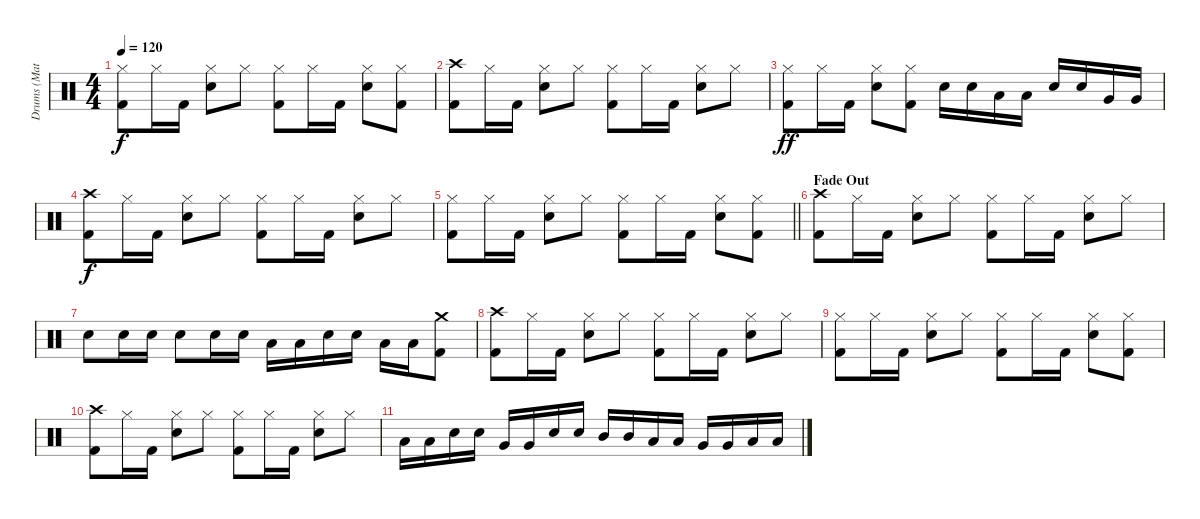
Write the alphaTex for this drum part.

\track ("Drums (Matt)" "Drums (Mat") {instrument percussion}
\staff {score}
\articulation defaults
\ts (4 4)
\tempo 120
\clef neutral
\ks c
("Hi-Hat (closed)" "Kick (hit) 2").8{dy f} "Hi-Hat (closed)".16 "Kick (hit) 2".16 ("Hi-Hat (closed)" "Snare (hit) 2").8 "Hi-Hat (closed)".8 ("Hi-Hat (closed)" "Kick (hit) 2").8 "Hi-Hat (closed)".16 "Kick (hit) 2".16 ("Hi-Hat (closed)" "Snare (hit) 2").8 ("Hi-Hat (closed)" "Kick (hit) 2").8 |
("Crash high (hit)" "Kick (hit) 2").8 "Hi-Hat (closed)".16 "Kick (hit) 2".16 ("Hi-Hat (closed)" "Snare (hit) 2").8 "Hi-Hat (closed)".8 ("Hi-Hat (closed)" "Kick (hit) 2").8 "Hi-Hat (closed)".16 "Kick (hit) 2".16 ("Hi-Hat (closed)" "Snare (hit) 2").8 "Hi-Hat (closed)".8 |
("Hi-Hat (closed)" "Kick (hit) 2").8{dy ff} "Hi-Hat (closed)".16 "Kick (hit) 2".16 ("Hi-Hat (closed)" "Snare (hit) 2").8 ("Hi-Hat (closed)" "Kick (hit) 2").8 "Snare (hit) 2".16 "Snare (hit) 2".16 "Low Tom (hit)".16 "Low Tom (hit)".16 "Snare (hit) 2".16 "Snare (hit) 2".16 "Very Low Tom (hit)".16 "Very Low Tom (hit)".16 |
("Crash high (hit)" "Kick (hit) 2").8{dy f} "Hi-Hat (closed)".16 "Kick (hit) 2".16 ("Hi-Hat (closed)" "Snare (hit) 2").8 "Hi-Hat (closed)".8 ("Hi-Hat (closed)" "Kick (hit) 2").8 "Hi-Hat (closed)".16 "Kick (hit) 2".16 ("Hi-Hat (closed)" "Snare (hit) 2").8 "Hi-Hat (closed)".8 |
\barLineRight lightlight
("Hi-Hat (closed)" "Kick (hit) 2").8 "Hi-Hat (closed)".16 "Kick (hit) 2".16 ("Hi-Hat (closed)" "Snare (hit) 2").8 "Hi-Hat (closed)".8 ("Hi-Hat (closed)" "Kick (hit) 2").8 "Hi-Hat (closed)".16 "Kick (hit) 2".16 ("Hi-Hat (closed)" "Snare (hit) 2").8 ("Hi-Hat (closed)" "Kick (hit) 2").8 |
\section ("" "Fade Out")
("Crash high (hit)" "Kick (hit) 2").8{volume 8} "Hi-Hat (closed)".16 "Kick (hit) 2".16 ("Hi-Hat (closed)" "Snare (hit) 2").8 "Hi-Hat (closed)".8 ("Hi-Hat (closed)" "Kick (hit) 2").8 "Hi-Hat (closed)".16 "Kick (hit) 2".16 ("Hi-Hat (closed)" "Snare (hit) 2").8 "Hi-Hat (closed)".8 |
"Snare (hit) 2".8 "Snare (hit) 2".16 "Snare (hit) 2".16 "Snare (hit) 2".8 "Snare (hit) 2".16 "Snare (hit) 2".16 "Low Tom (hit)".16 "Low Tom (hit)".16 "Snare (hit) 2".16 "Snare (hit) 2".16 "Low Tom (hit)".16 "Low Tom (hit)".16 ("Crash medium (hit)" "Kick (hit) 2").8 |
("Crash high (hit)" "Kick (hit) 2").8{volume 5} "Hi-Hat (closed)".16 "Kick (hit) 2".16 ("Hi-Hat (closed)" "Snare (hit) 2").8 "Hi-Hat (closed)".8 ("Hi-Hat (closed)" "Kick (hit) 2").8 "Hi-Hat (closed)".16 "Kick (hit) 2".16 ("Hi-Hat (closed)" "Snare (hit) 2").8 "Hi-Hat (closed)".8 |
("Hi-Hat (closed)" "Kick (hit) 2").8 "Hi-Hat (closed)".16 "Kick (hit) 2".16 ("Hi-Hat (closed)" "Snare (hit) 2").8 "Hi-Hat (closed)".8 ("Hi-Hat (closed)" "Kick (hit) 2").8 "Hi-Hat (closed)".16 "Kick (hit) 2".16 ("Hi-Hat (closed)" "Snare (hit) 2").8 ("Hi-Hat (closed)" "Kick (hit) 2").8 |
("Crash high (hit)" "Kick (hit) 2").8{volume 1} "Hi-Hat (closed)".16 "Kick (hit) 2".16 ("Hi-Hat (closed)" "Snare (hit) 2").8 "Hi-Hat (closed)".8 ("Hi-Hat (closed)" "Kick (hit) 2").8 "Hi-Hat (closed)".16 "Kick (hit) 2".16 ("Hi-Hat (closed)" "Snare (hit) 2").8 "Hi-Hat (closed)".8 |
"Low Tom (hit)".16 "Low Tom (hit)".16 "Snare (hit) 2".16 "Snare (hit) 2".16 "Very Low Tom (hit)".16 "Very Low Tom (hit)".16 "Snare (hit) 2".16 "Snare (hit) 2".16 "Mid Tom (hit)".16 "Mid Tom (hit)".16 "Low Tom (hit)".16 "Low Tom (hit)".16 "Very Low Tom (hit)".16 "Very Low Tom (hit)".16 "Low Floor Tom (hit)".16 "Low Floor Tom (hit)".16
